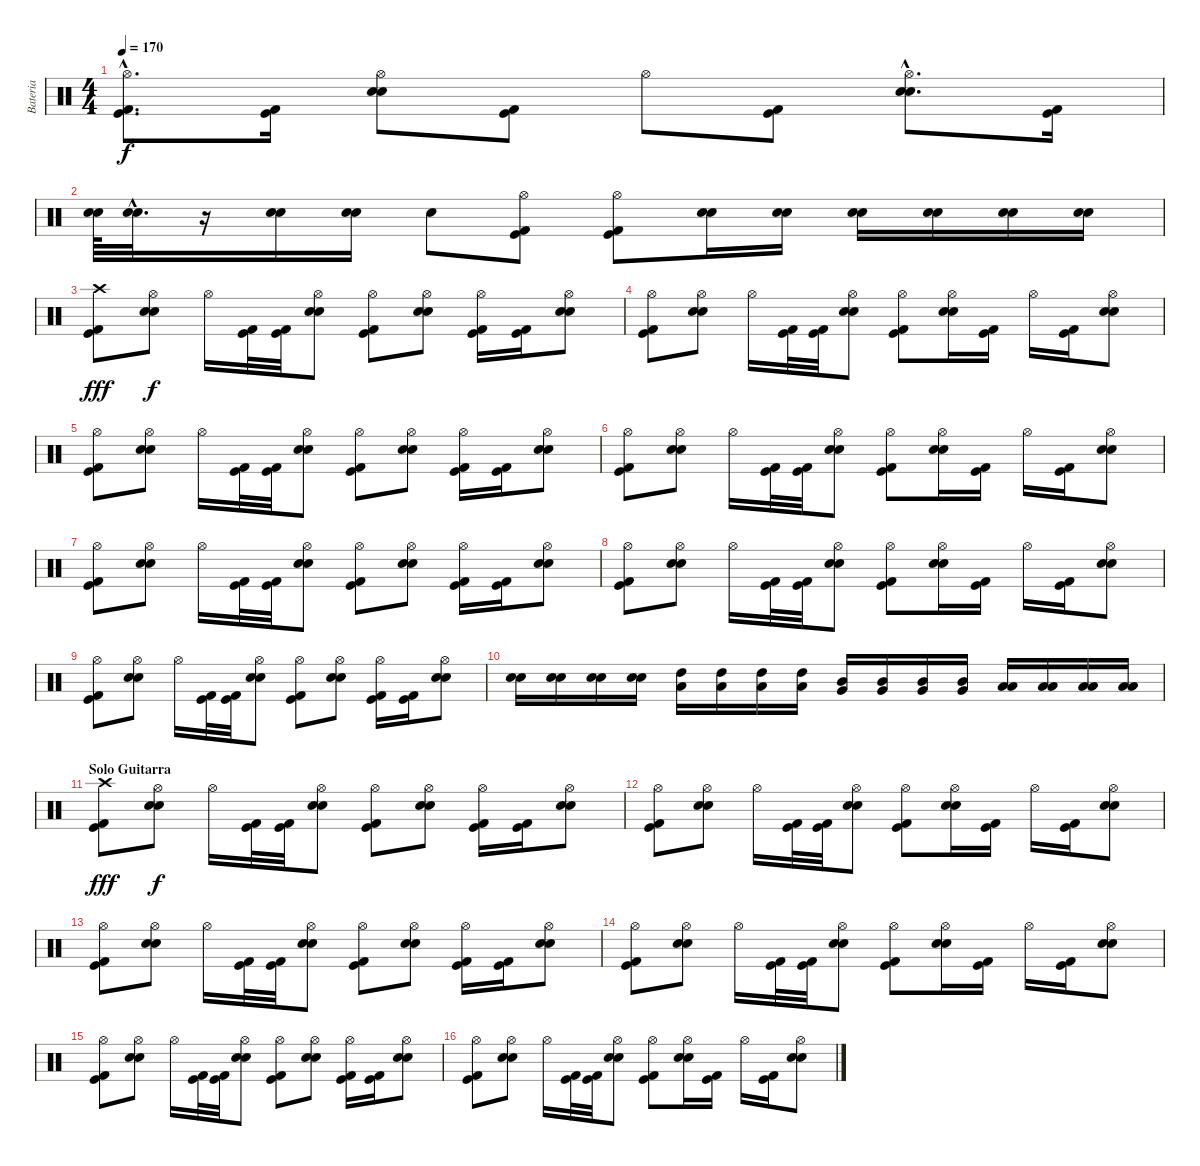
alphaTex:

\track ("Bateria" "Bateria") {instrument percussion}
\staff {score}
\articulation defaults
\ts (4 4)
\tempo 170
\clef neutral
\ks c
("Hi-Hat (open)"{hac} "Kick (hit) 2"{hac} "Kick (hit)"{hac}).8{d dy f} ("Kick (hit) 2" "Kick (hit)").16 ("Hi-Hat (open)" "Electric Snare (hit)" "Snare (hit) 2").8 ("Kick (hit) 2" "Kick (hit)").8 "Hi-Hat (open)".8 ("Kick (hit) 2" "Kick (hit)").8 ("Hi-Hat (open)"{hac} "Electric Snare (hit)"{hac} "Snare (hit) 2"{hac}).8{d} ("Kick (hit) 2" "Kick (hit)").16 |
("Electric Snare (hit)" "Snare (hit) 2").64 ("Electric Snare (hit)"{hac} "Snare (hit) 2"{hac}).32{d} r.16 ("Electric Snare (hit)" "Snare (hit) 2").16 ("Electric Snare (hit)" "Snare (hit) 2").16 "Snare (hit)"{x}.8 ("Hi-Hat (open)" "Kick (hit) 2" "Kick (hit)").8 ("Hi-Hat (open)" "Kick (hit) 2" "Kick (hit)").8 ("Electric Snare (hit)" "Snare (hit) 2").16 ("Electric Snare (hit)" "Snare (hit) 2").16 ("Electric Snare (hit)" "Snare (hit) 2").16 ("Electric Snare (hit)" "Snare (hit) 2").16 ("Electric Snare (hit)" "Snare (hit) 2").16 ("Electric Snare (hit)" "Snare (hit) 2").16 |
("Crash high (hit)" "Kick (hit) 2" "Kick (hit)").8{dy fff} ("Hi-Hat (open)" "Electric Snare (hit)" "Snare (hit) 2").8{dy f} "Hi-Hat (open)".16 ("Kick (hit) 2" "Kick (hit)").32 ("Kick (hit) 2" "Kick (hit)").32 ("Hi-Hat (open)" "Electric Snare (hit)" "Snare (hit) 2").8 ("Hi-Hat (open)" "Kick (hit) 2" "Kick (hit)").8 ("Hi-Hat (open)" "Electric Snare (hit)" "Snare (hit) 2").8 ("Hi-Hat (open)" "Kick (hit) 2" "Kick (hit)").16 ("Kick (hit) 2" "Kick (hit)").16 ("Hi-Hat (open)" "Electric Snare (hit)" "Snare (hit) 2").8 |
("Hi-Hat (open)" "Kick (hit) 2" "Kick (hit)").8 ("Hi-Hat (open)" "Electric Snare (hit)" "Snare (hit) 2").8 "Hi-Hat (open)".16 ("Kick (hit) 2" "Kick (hit)").32 ("Kick (hit) 2" "Kick (hit)").32 ("Hi-Hat (open)" "Electric Snare (hit)" "Snare (hit) 2").8 ("Hi-Hat (open)" "Kick (hit) 2" "Kick (hit)").8 ("Hi-Hat (open)" "Electric Snare (hit)" "Snare (hit) 2").16 ("Kick (hit) 2" "Kick (hit)").16 "Hi-Hat (open)".16 ("Kick (hit) 2" "Kick (hit)").16 ("Hi-Hat (open)" "Electric Snare (hit)" "Snare (hit) 2").8 |
("Hi-Hat (open)" "Kick (hit) 2" "Kick (hit)").8 ("Hi-Hat (open)" "Electric Snare (hit)" "Snare (hit) 2").8 "Hi-Hat (open)".16 ("Kick (hit) 2" "Kick (hit)").32 ("Kick (hit) 2" "Kick (hit)").32 ("Hi-Hat (open)" "Electric Snare (hit)" "Snare (hit) 2").8 ("Hi-Hat (open)" "Kick (hit) 2" "Kick (hit)").8 ("Hi-Hat (open)" "Electric Snare (hit)" "Snare (hit) 2").8 ("Hi-Hat (open)" "Kick (hit) 2" "Kick (hit)").16 ("Kick (hit) 2" "Kick (hit)").16 ("Hi-Hat (open)" "Electric Snare (hit)" "Snare (hit) 2").8 |
("Hi-Hat (open)" "Kick (hit) 2" "Kick (hit)").8 ("Hi-Hat (open)" "Electric Snare (hit)" "Snare (hit) 2").8 "Hi-Hat (open)".16 ("Kick (hit) 2" "Kick (hit)").32 ("Kick (hit) 2" "Kick (hit)").32 ("Hi-Hat (open)" "Electric Snare (hit)" "Snare (hit) 2").8 ("Hi-Hat (open)" "Kick (hit) 2" "Kick (hit)").8 ("Hi-Hat (open)" "Electric Snare (hit)" "Snare (hit) 2").16 ("Kick (hit) 2" "Kick (hit)").16 "Hi-Hat (open)".16 ("Kick (hit) 2" "Kick (hit)").16 ("Hi-Hat (open)" "Electric Snare (hit)" "Snare (hit) 2").8 |
("Hi-Hat (open)" "Kick (hit) 2" "Kick (hit)").8 ("Hi-Hat (open)" "Electric Snare (hit)" "Snare (hit) 2").8 "Hi-Hat (open)".16 ("Kick (hit) 2" "Kick (hit)").32 ("Kick (hit) 2" "Kick (hit)").32 ("Hi-Hat (open)" "Electric Snare (hit)" "Snare (hit) 2").8 ("Hi-Hat (open)" "Kick (hit) 2" "Kick (hit)").8 ("Hi-Hat (open)" "Electric Snare (hit)" "Snare (hit) 2").8 ("Hi-Hat (open)" "Kick (hit) 2" "Kick (hit)").16 ("Kick (hit) 2" "Kick (hit)").16 ("Hi-Hat (open)" "Electric Snare (hit)" "Snare (hit) 2").8 |
("Hi-Hat (open)" "Kick (hit) 2" "Kick (hit)").8 ("Hi-Hat (open)" "Electric Snare (hit)" "Snare (hit) 2").8 "Hi-Hat (open)".16 ("Kick (hit) 2" "Kick (hit)").32 ("Kick (hit) 2" "Kick (hit)").32 ("Hi-Hat (open)" "Electric Snare (hit)" "Snare (hit) 2").8 ("Hi-Hat (open)" "Kick (hit) 2" "Kick (hit)").8 ("Hi-Hat (open)" "Electric Snare (hit)" "Snare (hit) 2").16 ("Kick (hit) 2" "Kick (hit)").16 "Hi-Hat (open)".16 ("Kick (hit) 2" "Kick (hit)").16 ("Hi-Hat (open)" "Electric Snare (hit)" "Snare (hit) 2").8 |
("Hi-Hat (open)" "Kick (hit) 2" "Kick (hit)").8 ("Hi-Hat (open)" "Electric Snare (hit)" "Snare (hit) 2").8 "Hi-Hat (open)".16 ("Kick (hit) 2" "Kick (hit)").32 ("Kick (hit) 2" "Kick (hit)").32 ("Hi-Hat (open)" "Electric Snare (hit)" "Snare (hit) 2").8 ("Hi-Hat (open)" "Kick (hit) 2" "Kick (hit)").8 ("Hi-Hat (open)" "Electric Snare (hit)" "Snare (hit) 2").8 ("Hi-Hat (open)" "Kick (hit) 2" "Kick (hit)").16 ("Kick (hit) 2" "Kick (hit)").16 ("Hi-Hat (open)" "Electric Snare (hit)" "Snare (hit) 2").8 |
("Electric Snare (hit)" "Snare (hit) 2").16 ("Electric Snare (hit)" "Snare (hit) 2").16 ("Electric Snare (hit)" "Snare (hit) 2").16 ("Electric Snare (hit)" "Snare (hit) 2").16 ("High Tom (hit)" "Low Tom (hit)").16 ("High Tom (hit)" "Low Tom (hit)").16 ("High Tom (hit)" "Low Tom (hit)").16 ("High Tom (hit)" "Low Tom (hit)").16 ("Mid Tom (hit)" "Very Low Tom (hit)").16 ("Mid Tom (hit)" "Very Low Tom (hit)").16 ("Mid Tom (hit)" "Very Low Tom (hit)").16 ("Mid Tom (hit)" "Very Low Tom (hit)").16 ("Low Tom (hit)" "Low Floor Tom (hit)").16 ("Low Tom (hit)" "Low Floor Tom (hit)").16 ("Low Tom (hit)" "Low Floor Tom (hit)").16 ("Low Tom (hit)" "Low Floor Tom (hit)").16 |
\section ("" "Solo Guitarra")
("Crash high (hit)" "Kick (hit) 2" "Kick (hit)").8{dy fff} ("Hi-Hat (open)" "Electric Snare (hit)" "Snare (hit) 2").8{dy f} "Hi-Hat (open)".16 ("Kick (hit) 2" "Kick (hit)").32 ("Kick (hit) 2" "Kick (hit)").32 ("Hi-Hat (open)" "Electric Snare (hit)" "Snare (hit) 2").8 ("Hi-Hat (open)" "Kick (hit) 2" "Kick (hit)").8 ("Hi-Hat (open)" "Electric Snare (hit)" "Snare (hit) 2").8 ("Hi-Hat (open)" "Kick (hit) 2" "Kick (hit)").16 ("Kick (hit) 2" "Kick (hit)").16 ("Hi-Hat (open)" "Electric Snare (hit)" "Snare (hit) 2").8 |
("Hi-Hat (open)" "Kick (hit) 2" "Kick (hit)").8 ("Hi-Hat (open)" "Electric Snare (hit)" "Snare (hit) 2").8 "Hi-Hat (open)".16 ("Kick (hit) 2" "Kick (hit)").32 ("Kick (hit) 2" "Kick (hit)").32 ("Hi-Hat (open)" "Electric Snare (hit)" "Snare (hit) 2").8 ("Hi-Hat (open)" "Kick (hit) 2" "Kick (hit)").8 ("Hi-Hat (open)" "Electric Snare (hit)" "Snare (hit) 2").16 ("Kick (hit) 2" "Kick (hit)").16 "Hi-Hat (open)".16 ("Kick (hit) 2" "Kick (hit)").16 ("Hi-Hat (open)" "Electric Snare (hit)" "Snare (hit) 2").8 |
("Hi-Hat (open)" "Kick (hit) 2" "Kick (hit)").8 ("Hi-Hat (open)" "Electric Snare (hit)" "Snare (hit) 2").8 "Hi-Hat (open)".16 ("Kick (hit) 2" "Kick (hit)").32 ("Kick (hit) 2" "Kick (hit)").32 ("Hi-Hat (open)" "Electric Snare (hit)" "Snare (hit) 2").8 ("Hi-Hat (open)" "Kick (hit) 2" "Kick (hit)").8 ("Hi-Hat (open)" "Electric Snare (hit)" "Snare (hit) 2").8 ("Hi-Hat (open)" "Kick (hit) 2" "Kick (hit)").16 ("Kick (hit) 2" "Kick (hit)").16 ("Hi-Hat (open)" "Electric Snare (hit)" "Snare (hit) 2").8 |
("Hi-Hat (open)" "Kick (hit) 2" "Kick (hit)").8 ("Hi-Hat (open)" "Electric Snare (hit)" "Snare (hit) 2").8 "Hi-Hat (open)".16 ("Kick (hit) 2" "Kick (hit)").32 ("Kick (hit) 2" "Kick (hit)").32 ("Hi-Hat (open)" "Electric Snare (hit)" "Snare (hit) 2").8 ("Hi-Hat (open)" "Kick (hit) 2" "Kick (hit)").8 ("Hi-Hat (open)" "Electric Snare (hit)" "Snare (hit) 2").16 ("Kick (hit) 2" "Kick (hit)").16 "Hi-Hat (open)".16 ("Kick (hit) 2" "Kick (hit)").16 ("Hi-Hat (open)" "Electric Snare (hit)" "Snare (hit) 2").8 |
("Hi-Hat (open)" "Kick (hit) 2" "Kick (hit)").8 ("Hi-Hat (open)" "Electric Snare (hit)" "Snare (hit) 2").8 "Hi-Hat (open)".16 ("Kick (hit) 2" "Kick (hit)").32 ("Kick (hit) 2" "Kick (hit)").32 ("Hi-Hat (open)" "Electric Snare (hit)" "Snare (hit) 2").8 ("Hi-Hat (open)" "Kick (hit) 2" "Kick (hit)").8 ("Hi-Hat (open)" "Electric Snare (hit)" "Snare (hit) 2").8 ("Hi-Hat (open)" "Kick (hit) 2" "Kick (hit)").16 ("Kick (hit) 2" "Kick (hit)").16 ("Hi-Hat (open)" "Electric Snare (hit)" "Snare (hit) 2").8 |
("Hi-Hat (open)" "Kick (hit) 2" "Kick (hit)").8 ("Hi-Hat (open)" "Electric Snare (hit)" "Snare (hit) 2").8 "Hi-Hat (open)".16 ("Kick (hit) 2" "Kick (hit)").32 ("Kick (hit) 2" "Kick (hit)").32 ("Hi-Hat (open)" "Electric Snare (hit)" "Snare (hit) 2").8 ("Hi-Hat (open)" "Kick (hit) 2" "Kick (hit)").8 ("Hi-Hat (open)" "Electric Snare (hit)" "Snare (hit) 2").16 ("Kick (hit) 2" "Kick (hit)").16 "Hi-Hat (open)".16 ("Kick (hit) 2" "Kick (hit)").16 ("Hi-Hat (open)" "Electric Snare (hit)" "Snare (hit) 2").8
